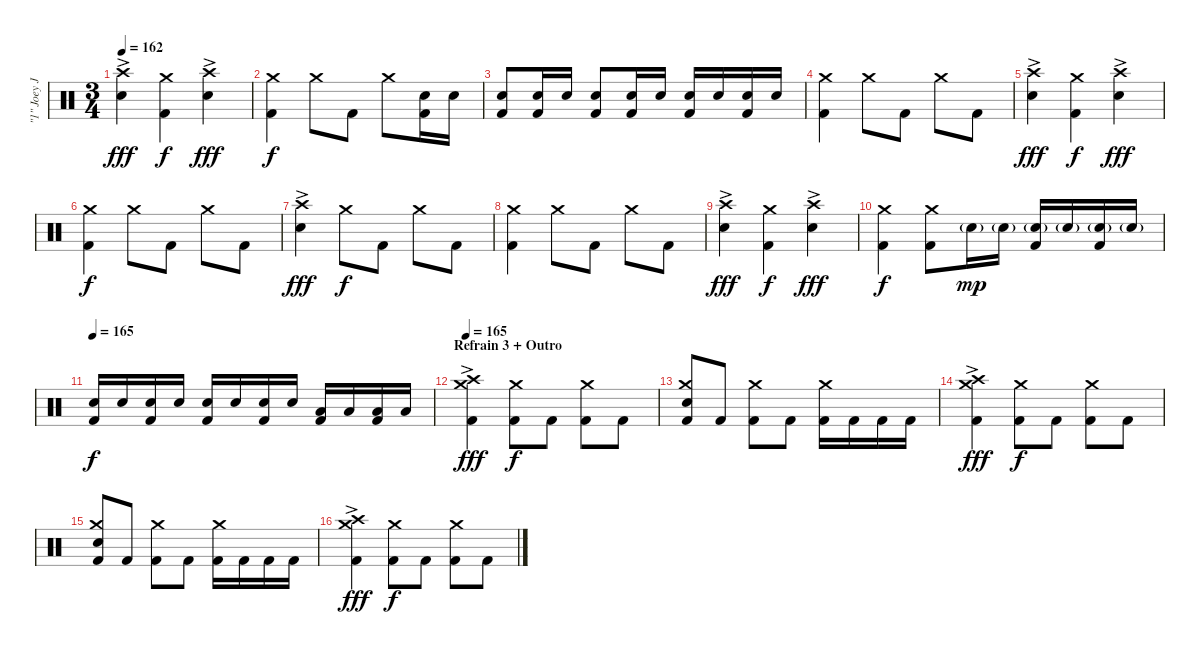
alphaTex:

\track ("\"1\" Joey Jordison (Drums)" "\"1\" Joey J") {instrument percussion}
\staff {score}
\articulation defaults
\ts (3 4)
\tempo 162
\clef neutral
\ks c
("Crash high (hit)"{ac} "Electric Snare (hit)").4{dy fff} ("Crash medium (hit)" "Kick (hit) 2").4{dy f} ("Crash high (hit)"{ac} "Electric Snare (hit)").4{dy fff} |
("Crash medium (hit)" "Kick (hit) 2").4{dy f} "Crash medium (hit)".8 "Kick (hit) 2".8 "Crash medium (hit)".8 ("Electric Snare (hit)" "Kick (hit) 2").16 "Electric Snare (hit)".16 |
("Electric Snare (hit)" "Kick (hit) 2").8 ("Electric Snare (hit)" "Kick (hit) 2").16 "Electric Snare (hit)".16 ("Electric Snare (hit)" "Kick (hit) 2").8 ("Electric Snare (hit)" "Kick (hit) 2").16 "Electric Snare (hit)".16 ("Electric Snare (hit)" "Kick (hit) 2").16 "Electric Snare (hit)".16 ("Electric Snare (hit)" "Kick (hit) 2").16 "Electric Snare (hit)".16 |
("Crash medium (hit)" "Kick (hit) 2").4 "Crash medium (hit)".8 "Kick (hit) 2".8 "Crash medium (hit)".8 "Kick (hit) 2".8 |
("Crash high (hit)"{ac} "Electric Snare (hit)").4{dy fff} ("Crash medium (hit)" "Kick (hit) 2").4{dy f} ("Crash high (hit)"{ac} "Electric Snare (hit)").4{dy fff} |
("Crash medium (hit)" "Kick (hit) 2").4{dy f} "Crash medium (hit)".8 "Kick (hit) 2".8 "Crash medium (hit)".8 "Kick (hit) 2".8 |
("Crash high (hit)"{ac} "Electric Snare (hit)").4{dy fff} "Crash medium (hit)".8{dy f} "Kick (hit) 2".8 "Crash medium (hit)".8 "Kick (hit) 2".8 |
("Crash medium (hit)" "Kick (hit) 2").4 "Crash medium (hit)".8 "Kick (hit) 2".8 "Crash medium (hit)".8 "Kick (hit) 2".8 |
("Crash high (hit)"{ac} "Electric Snare (hit)").4{dy fff} ("Crash medium (hit)" "Kick (hit) 2").4{dy f} ("Crash high (hit)"{ac} "Electric Snare (hit)").4{dy fff} |
("Crash medium (hit)" "Kick (hit) 2").4{dy f} ("Crash medium (hit)" "Kick (hit) 2").8 "Electric Snare (hit)"{g}.16{dy mp} "Electric Snare (hit)"{g}.16 ("Electric Snare (hit)"{g} "Kick (hit) 2").16 "Electric Snare (hit)"{g}.16 ("Electric Snare (hit)"{g} "Kick (hit) 2").16 "Electric Snare (hit)"{g}.16 |
\tempo 165
("Electric Snare (hit)" "Kick (hit) 2").16{dy f} "Electric Snare (hit)".16 ("Electric Snare (hit)" "Kick (hit) 2").16 "Electric Snare (hit)".16 ("Electric Snare (hit)" "Kick (hit) 2").16 "Electric Snare (hit)".16 ("Electric Snare (hit)" "Kick (hit) 2").16 "Electric Snare (hit)".16 ("Low Tom (hit)" "Kick (hit) 2").16 "Low Tom (hit)".16 ("Low Tom (hit)" "Kick (hit) 2").16 "Low Tom (hit)".16 |
\section ("" "Refrain 3 + Outro")
\tempo 165
("Crash high (hit)"{ac} "Crash medium (hit)" "Kick (hit) 2").4{dy fff} ("Crash medium (hit)" "Kick (hit) 2").8{dy f} "Kick (hit) 2".8 ("Crash medium (hit)" "Kick (hit) 2").8 "Kick (hit) 2".8 |
("Crash medium (hit)" "Electric Snare (hit)" "Kick (hit) 2").8 "Kick (hit) 2".8 ("Crash medium (hit)" "Kick (hit) 2").8 "Kick (hit) 2".8 ("Crash medium (hit)" "Kick (hit) 2").16 "Kick (hit) 2".16 "Kick (hit) 2".16 "Kick (hit) 2".16 |
("Crash high (hit)"{ac} "Crash medium (hit)" "Kick (hit) 2").4{dy fff} ("Crash medium (hit)" "Kick (hit) 2").8{dy f} "Kick (hit) 2".8 ("Crash medium (hit)" "Kick (hit) 2").8 "Kick (hit) 2".8 |
("Crash medium (hit)" "Electric Snare (hit)" "Kick (hit) 2").8 "Kick (hit) 2".8 ("Crash medium (hit)" "Kick (hit) 2").8 "Kick (hit) 2".8 ("Crash medium (hit)" "Kick (hit) 2").16 "Kick (hit) 2".16 "Kick (hit) 2".16 "Kick (hit) 2".16 |
("Crash high (hit)"{ac} "Crash medium (hit)" "Kick (hit) 2").4{dy fff} ("Crash medium (hit)" "Kick (hit) 2").8{dy f} "Kick (hit) 2".8 ("Crash medium (hit)" "Kick (hit) 2").8 "Kick (hit) 2".8
